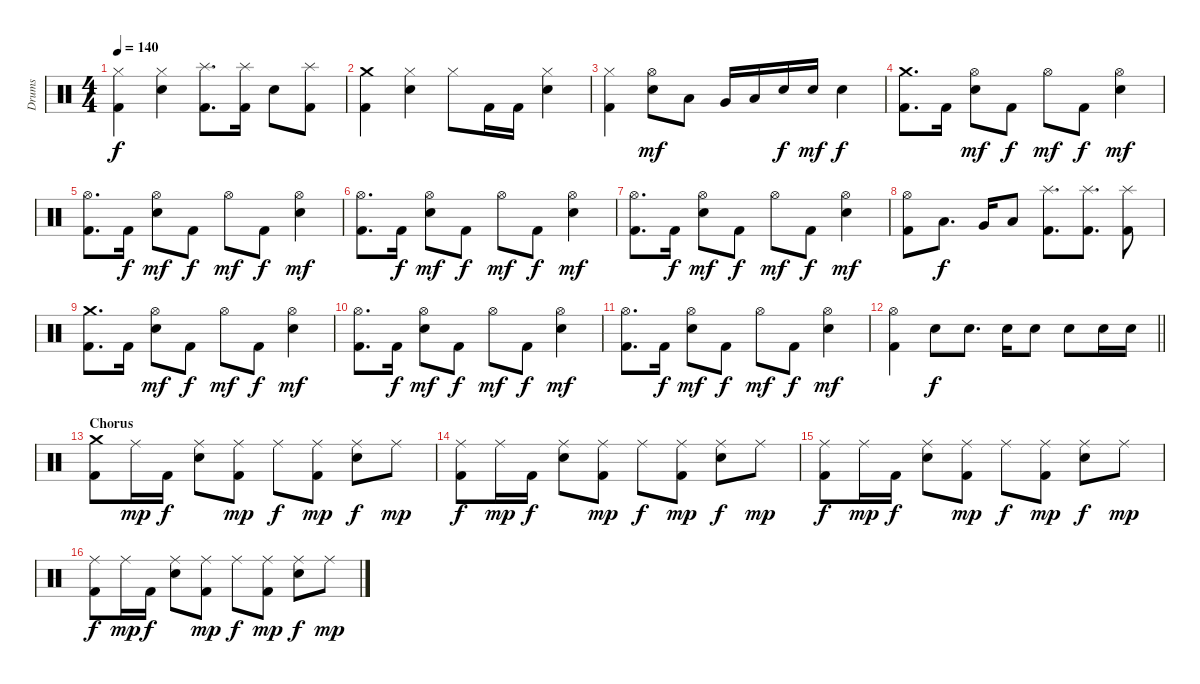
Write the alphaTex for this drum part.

\track ("Drums" "Drums") {instrument percussion}
\staff {score}
\articulation defaults
\ts (4 4)
\tempo 140
\clef neutral
\ks c
("Kick (hit) 2" "Hi-Hat (closed)").4{dy f} ("Hi-Hat (closed)" "Electric Snare (hit)").4 ("Kick (hit) 2" "Splash (hit)").8{d} ("Kick (hit) 2" "Splash (hit)").16 "Electric Snare (hit)".8 ("Kick (hit) 2" "Splash (hit)").8 |
("Kick (hit) 2" "Crash medium (hit)").4 ("Hi-Hat (closed)" "Electric Snare (hit)").4 "Hi-Hat (closed)".8 "Kick (hit) 2".16 "Kick (hit) 2".16 ("Hi-Hat (closed)" "Electric Snare (hit)").4 |
("Kick (hit) 2" "Hi-Hat (closed)").4 ("Hi-Hat (open)" "Electric Snare (hit)").8{dy mf} "Low Tom (hit)".8 "Very Low Tom (hit)".16 "Low Floor Tom (hit)".16 "Electric Snare (hit)".16{dy f} "Electric Snare (hit)".16{dy mf} "Electric Snare (hit)".4{dy f} |
("Kick (hit) 2" "Crash medium (hit)").8{d} "Kick (hit) 2".16 ("Hi-Hat (open)" "Electric Snare (hit)").8{dy mf} "Kick (hit) 2".8{dy f} "Hi-Hat (open)".8{dy mf} "Kick (hit) 2".8{dy f} ("Hi-Hat (open)" "Electric Snare (hit)").4{dy mf} |
("Kick (hit) 2" "Hi-Hat (open)").8{d} "Kick (hit) 2".16{dy f} ("Hi-Hat (open)" "Electric Snare (hit)").8{dy mf} "Kick (hit) 2".8{dy f} "Hi-Hat (open)".8{dy mf} "Kick (hit) 2".8{dy f} ("Hi-Hat (open)" "Electric Snare (hit)").4{dy mf} |
("Kick (hit) 2" "Hi-Hat (open)").8{d} "Kick (hit) 2".16{dy f} ("Hi-Hat (open)" "Electric Snare (hit)").8{dy mf} "Kick (hit) 2".8{dy f} "Hi-Hat (open)".8{dy mf} "Kick (hit) 2".8{dy f} ("Hi-Hat (open)" "Electric Snare (hit)").4{dy mf} |
("Kick (hit) 2" "Hi-Hat (open)").8{d} "Kick (hit) 2".16{dy f} ("Hi-Hat (open)" "Electric Snare (hit)").8{dy mf} "Kick (hit) 2".8{dy f} "Hi-Hat (open)".8{dy mf} "Kick (hit) 2".8{dy f} ("Hi-Hat (open)" "Electric Snare (hit)").4{dy mf} |
("Kick (hit) 2" "Hi-Hat (open)").8 "Low Tom (hit)".8{d dy f} "Very Low Tom (hit)".16 "Low Floor Tom (hit)".8 ("Kick (hit) 2" "Splash (hit)").8{d} ("Kick (hit) 2" "Splash (hit)").8{d} ("Kick (hit) 2" "Splash (hit)").8 |
("Kick (hit) 2" "Crash medium (hit)").8{d} "Kick (hit) 2".16 ("Hi-Hat (open)" "Electric Snare (hit)").8{dy mf} "Kick (hit) 2".8{dy f} "Hi-Hat (open)".8{dy mf} "Kick (hit) 2".8{dy f} ("Hi-Hat (open)" "Electric Snare (hit)").4{dy mf} |
("Kick (hit) 2" "Hi-Hat (open)").8{d} "Kick (hit) 2".16{dy f} ("Hi-Hat (open)" "Electric Snare (hit)").8{dy mf} "Kick (hit) 2".8{dy f} "Hi-Hat (open)".8{dy mf} "Kick (hit) 2".8{dy f} ("Hi-Hat (open)" "Electric Snare (hit)").4{dy mf} |
("Kick (hit) 2" "Hi-Hat (open)").8{d} "Kick (hit) 2".16{dy f} ("Hi-Hat (open)" "Electric Snare (hit)").8{dy mf} "Kick (hit) 2".8{dy f} "Hi-Hat (open)".8{dy mf} "Kick (hit) 2".8{dy f} ("Hi-Hat (open)" "Electric Snare (hit)").4{dy mf} |
\barLineRight lightlight
("Kick (hit) 2" "Hi-Hat (open)").4 "Electric Snare (hit)".8{dy f} "Electric Snare (hit)".8{d} "Electric Snare (hit)".16 "Electric Snare (hit)".8 "Electric Snare (hit)".8 "Electric Snare (hit)".16 "Electric Snare (hit)".16 |
\section ("" "Chorus")
("Kick (hit) 2" "Crash medium (hit)").8 "Ride (middle)".16{dy mp} "Kick (hit) 2".16{dy f} ("Ride (middle)" "Electric Snare (hit)").8 ("Kick (hit) 2" "Ride (middle)").8{dy mp} "Ride (middle)".8{dy f} ("Kick (hit) 2" "Ride (middle)").8{dy mp} ("Ride (middle)" "Electric Snare (hit)").8{dy f} "Ride (middle)".8{dy mp} |
("Kick (hit) 2" "Ride (middle)").8{dy f} "Ride (middle)".16{dy mp} "Kick (hit) 2".16{dy f} ("Ride (middle)" "Electric Snare (hit)").8 ("Kick (hit) 2" "Ride (middle)").8{dy mp} "Ride (middle)".8{dy f} ("Kick (hit) 2" "Ride (middle)").8{dy mp} ("Ride (middle)" "Electric Snare (hit)").8{dy f} "Ride (middle)".8{dy mp} |
("Kick (hit) 2" "Ride (middle)").8{dy f} "Ride (middle)".16{dy mp} "Kick (hit) 2".16{dy f} ("Ride (middle)" "Electric Snare (hit)").8 ("Kick (hit) 2" "Ride (middle)").8{dy mp} "Ride (middle)".8{dy f} ("Kick (hit) 2" "Ride (middle)").8{dy mp} ("Ride (middle)" "Electric Snare (hit)").8{dy f} "Ride (middle)".8{dy mp} |
("Kick (hit) 2" "Ride (middle)").8{dy f} "Ride (middle)".16{dy mp} "Kick (hit) 2".16{dy f} ("Ride (middle)" "Electric Snare (hit)").8 ("Kick (hit) 2" "Ride (middle)").8{dy mp} "Ride (middle)".8{dy f} ("Kick (hit) 2" "Ride (middle)").8{dy mp} ("Ride (middle)" "Electric Snare (hit)").8{dy f} "Ride (middle)".8{dy mp}
